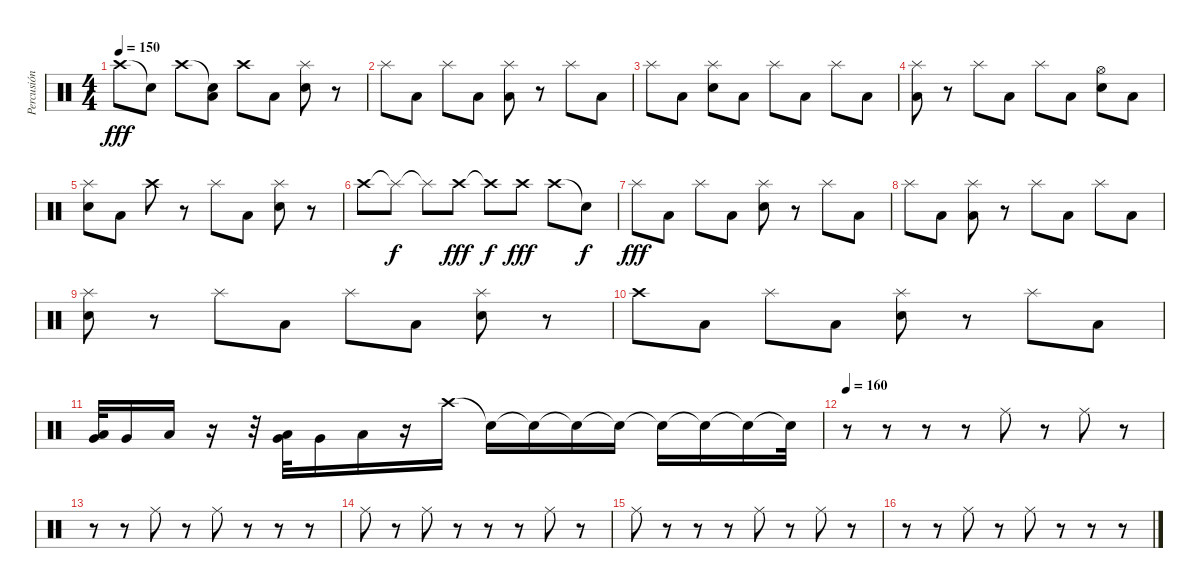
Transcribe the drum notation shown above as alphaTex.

\track ("Percusión" "Percusión") {instrument percussion}
\staff {score}
\articulation defaults
\ts (4 4)
\tempo 150
\clef neutral
\ks c "Crash high (hit)".8{dy fff} "Snare (hit)"{t}.8 "Crash high (hit)".8
("Snare (hit)"{t} "Low Tom (hit)").8 "Crash high (hit)".8 "Low Tom (hit)".8 ("Splash (hit)" "Snare (hit) 2").8 r.8 |
"Splash (hit)".8 "Low Tom (hit)".8 "Splash (hit)".8 "Low Tom (hit)".8 ("Splash (hit)" "Low Tom (hit)").8 r.8 "Splash (hit)".8 "Low Tom (hit)".8 |
"Splash (hit)".8 "Low Tom (hit)".8 ("Splash (hit)" "Snare (hit) 2").8 "Low Tom (hit)".8 "Splash (hit)".8 "Low Tom (hit)".8 "Splash (hit)".8 "Low Tom (hit)".8 |
("Splash (hit)" "Low Tom (hit)").8 r.8 "Splash (hit)".8 "Low Tom (hit)".8 "Splash (hit)".8 "Low Tom (hit)".8 ("Hi-Hat (open)" "Snare (hit) 2").8 "Low Tom (hit)".8 |
("Splash (hit)" "Snare (hit) 2").8 "Low Tom (hit)".8 "Crash high (hit)".8 r.8 "Splash (hit)".8 "Low Tom (hit)".8 ("Splash (hit)" "Snare (hit) 2").8 r.8 |
"Crash high (hit)".8 "Splash (hit)"{t}.8{dy f} "Splash (hit)"{t}.8 "Crash high (hit)".8{dy fff} "Crash high (hit)"{t}.8{dy f} "Crash high (hit)".8{dy fff} "Crash high (hit)".8 "Snare (hit)"{t}.8{dy f} |
"Splash (hit)".8{dy fff} "Low Tom (hit)".8 "Splash (hit)".8 "Low Tom (hit)".8 ("Splash (hit)" "Snare (hit) 2").8 r.8 "Splash (hit)".8 "Low Tom (hit)".8 |
"Splash (hit)".8 "Low Tom (hit)".8 ("Splash (hit)" "Low Tom (hit)").8 r.8 "Splash (hit)".8 "Low Tom (hit)".8 "Splash (hit)".8 "Low Tom (hit)".8 |
("Splash (hit)" "Snare (hit) 2").8 r.8 "Splash (hit)".8 "Low Tom (hit)".8 "Splash (hit)".8 "Low Tom (hit)".8 ("Splash (hit)" "Snare (hit) 2").8 r.8 |
"Crash high (hit)".8 "Low Tom (hit)".8 "Splash (hit)".8 "Low Tom (hit)".8 ("Splash (hit)" "Snare (hit) 2").8 r.8 "Splash (hit)".8 "Low Tom (hit)".8 |
("Very Low Tom (hit)" "Low Floor Tom (hit)").32 "Very Low Tom (hit)".16 "Low Tom (hit)".16 r.16 r.32 ("Very Low Tom (hit)" "Low Floor Tom (hit)").32 "Very Low Tom (hit)".16 "Low Tom (hit)".16 r.16 "Crash high (hit)".16 "Snare (hit)"{t}.16 "Snare (hit)"{t}.16 "Snare (hit)"{t}.16 "Snare (hit)"{t}.16 "Snare (hit)"{t}.16 "Snare (hit)"{t}.16 "Snare (hit)"{t}.16 "Snare (hit)"{t}.32 |
\tempo 160
r.8 r.8 r.8 r.8 "Ride (middle)".8 r.8 "Ride (middle)".8 r.8 |
r.8 r.8 "Ride (middle)".8 r.8 "Ride (middle)".8 r.8 r.8 r.8 |
"Ride (middle)".8 r.8 "Ride (middle)".8 r.8 r.8 r.8 "Ride (middle)".8 r.8 |
"Ride (middle)".8 r.8 r.8 r.8 "Ride (middle)".8 r.8 "Ride (middle)".8 r.8 |
r.8 r.8 "Ride (middle)".8 r.8 "Ride (middle)".8 r.8 r.8 r.8
